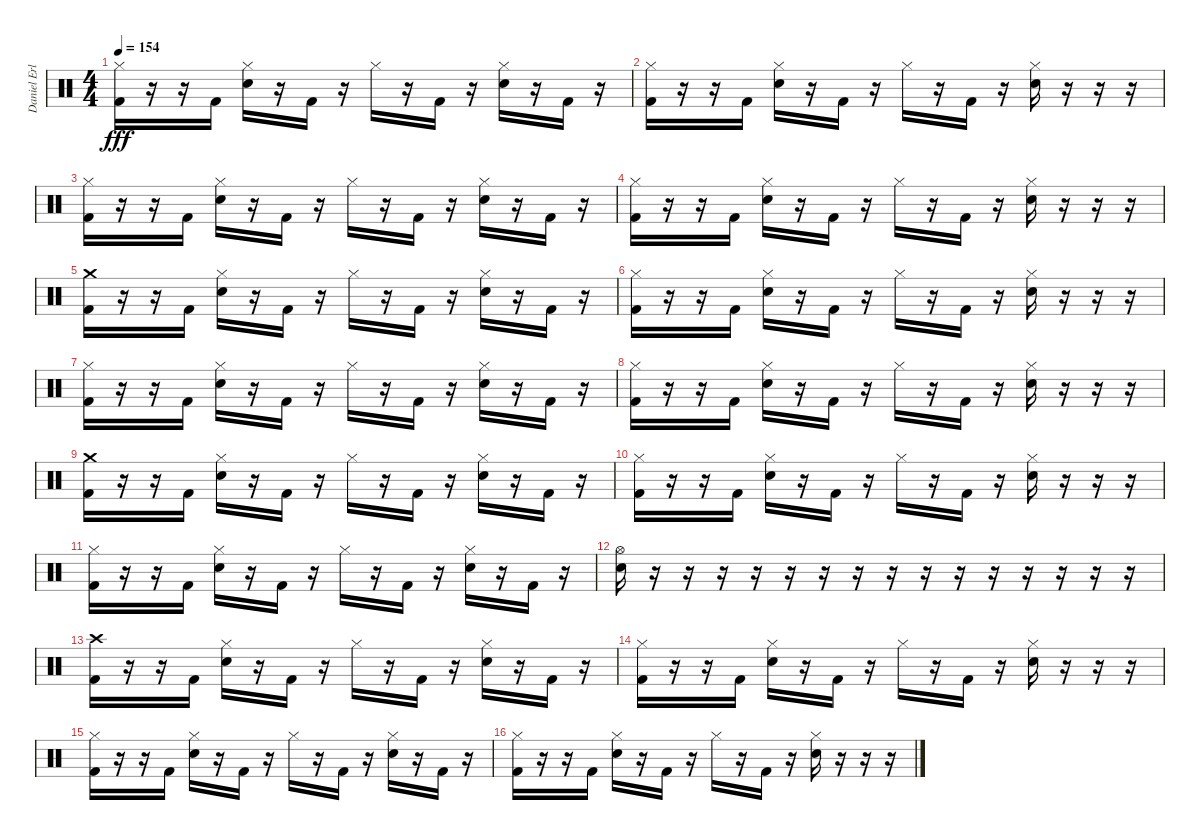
\track ("Daniel Erlandsson" "Daniel Erl") {instrument percussion}
\staff {score}
\articulation defaults
\ts (4 4)
\tempo 154
\clef neutral
\ks c
("Hi-Hat (closed)" "Kick (hit) 2").16{dy fff} r.16 r.16 "Kick (hit) 2".16 ("Hi-Hat (closed)" "Electric Snare (hit)").16 r.16 "Kick (hit) 2".16 r.16 "Hi-Hat (closed)".16 r.16 "Kick (hit) 2".16 r.16 ("Hi-Hat (closed)" "Electric Snare (hit)").16 r.16 "Kick (hit) 2".16 r.16 |
("Hi-Hat (closed)" "Kick (hit) 2").16 r.16 r.16 "Kick (hit) 2".16 ("Hi-Hat (closed)" "Electric Snare (hit)").16 r.16 "Kick (hit) 2".16 r.16 "Hi-Hat (closed)".16 r.16 "Kick (hit) 2".16 r.16 ("Hi-Hat (closed)" "Electric Snare (hit)").16 r.16 r.16 r.16 |
("Hi-Hat (closed)" "Kick (hit) 2").16 r.16 r.16 "Kick (hit) 2".16 ("Hi-Hat (closed)" "Electric Snare (hit)").16 r.16 "Kick (hit) 2".16 r.16 "Hi-Hat (closed)".16 r.16 "Kick (hit) 2".16 r.16 ("Hi-Hat (closed)" "Electric Snare (hit)").16 r.16 "Kick (hit) 2".16 r.16 |
("Hi-Hat (closed)" "Kick (hit) 2").16 r.16 r.16 "Kick (hit) 2".16 ("Hi-Hat (closed)" "Electric Snare (hit)").16 r.16 "Kick (hit) 2".16 r.16 "Hi-Hat (closed)".16 r.16 "Kick (hit) 2".16 r.16 ("Hi-Hat (closed)" "Electric Snare (hit)").16 r.16 r.16 r.16 |
("Crash medium (hit)" "Kick (hit) 2").16 r.16 r.16 "Kick (hit) 2".16 ("Hi-Hat (closed)" "Electric Snare (hit)").16 r.16 "Kick (hit) 2".16 r.16 "Hi-Hat (closed)".16 r.16 "Kick (hit) 2".16 r.16 ("Hi-Hat (closed)" "Electric Snare (hit)").16 r.16 "Kick (hit) 2".16 r.16 |
("Hi-Hat (closed)" "Kick (hit) 2").16 r.16 r.16 "Kick (hit) 2".16 ("Hi-Hat (closed)" "Electric Snare (hit)").16 r.16 "Kick (hit) 2".16 r.16 "Hi-Hat (closed)".16 r.16 "Kick (hit) 2".16 r.16 ("Hi-Hat (closed)" "Electric Snare (hit)").16 r.16 r.16 r.16 |
("Hi-Hat (closed)" "Kick (hit) 2").16 r.16 r.16 "Kick (hit) 2".16 ("Hi-Hat (closed)" "Electric Snare (hit)").16 r.16 "Kick (hit) 2".16 r.16 "Hi-Hat (closed)".16 r.16 "Kick (hit) 2".16 r.16 ("Hi-Hat (closed)" "Electric Snare (hit)").16 r.16 "Kick (hit) 2".16 r.16 |
("Hi-Hat (closed)" "Kick (hit) 2").16 r.16 r.16 "Kick (hit) 2".16 ("Hi-Hat (closed)" "Electric Snare (hit)").16 r.16 "Kick (hit) 2".16 r.16 "Hi-Hat (closed)".16 r.16 "Kick (hit) 2".16 r.16 ("Hi-Hat (closed)" "Electric Snare (hit)").16 r.16 r.16 r.16 |
("Crash medium (hit)" "Kick (hit) 2").16 r.16 r.16 "Kick (hit) 2".16 ("Hi-Hat (closed)" "Electric Snare (hit)").16 r.16 "Kick (hit) 2".16 r.16 "Hi-Hat (closed)".16 r.16 "Kick (hit) 2".16 r.16 ("Hi-Hat (closed)" "Electric Snare (hit)").16 r.16 "Kick (hit) 2".16 r.16 |
("Hi-Hat (closed)" "Kick (hit) 2").16 r.16 r.16 "Kick (hit) 2".16 ("Hi-Hat (closed)" "Electric Snare (hit)").16 r.16 "Kick (hit) 2".16 r.16 "Hi-Hat (closed)".16 r.16 "Kick (hit) 2".16 r.16 ("Hi-Hat (closed)" "Electric Snare (hit)").16 r.16 r.16 r.16 |
("Hi-Hat (closed)" "Kick (hit) 2").16 r.16 r.16 "Kick (hit) 2".16 ("Hi-Hat (closed)" "Electric Snare (hit)").16 r.16 "Kick (hit) 2".16 r.16 "Hi-Hat (closed)".16 r.16 "Kick (hit) 2".16 r.16 ("Hi-Hat (closed)" "Electric Snare (hit)").16 r.16 "Kick (hit) 2".16 r.16 |
("Hi-Hat (open)" "Electric Snare (hit)").16 r.16 r.16 r.16 r.16 r.16 r.16 r.16 r.16 r.16 r.16 r.16 r.16 r.16 r.16 r.16 |
("Crash high (hit)" "Kick (hit) 2").16 r.16 r.16 "Kick (hit) 2".16 ("Hi-Hat (closed)" "Electric Snare (hit)").16 r.16 "Kick (hit) 2".16 r.16 "Hi-Hat (closed)".16 r.16 "Kick (hit) 2".16 r.16 ("Hi-Hat (closed)" "Electric Snare (hit)").16 r.16 "Kick (hit) 2".16 r.16 |
("Hi-Hat (closed)" "Kick (hit) 2").16 r.16 r.16 "Kick (hit) 2".16 ("Hi-Hat (closed)" "Electric Snare (hit)").16 r.16 "Kick (hit) 2".16 r.16 "Hi-Hat (closed)".16 r.16 "Kick (hit) 2".16 r.16 ("Hi-Hat (closed)" "Electric Snare (hit)").16 r.16 r.16 r.16 |
("Hi-Hat (closed)" "Kick (hit) 2").16 r.16 r.16 "Kick (hit) 2".16 ("Hi-Hat (closed)" "Electric Snare (hit)").16 r.16 "Kick (hit) 2".16 r.16 "Hi-Hat (closed)".16 r.16 "Kick (hit) 2".16 r.16 ("Hi-Hat (closed)" "Electric Snare (hit)").16 r.16 "Kick (hit) 2".16 r.16 |
("Hi-Hat (closed)" "Kick (hit) 2").16 r.16 r.16 "Kick (hit) 2".16 ("Hi-Hat (closed)" "Electric Snare (hit)").16 r.16 "Kick (hit) 2".16 r.16 "Hi-Hat (closed)".16 r.16 "Kick (hit) 2".16 r.16 ("Hi-Hat (closed)" "Electric Snare (hit)").16 r.16 r.16 r.16
